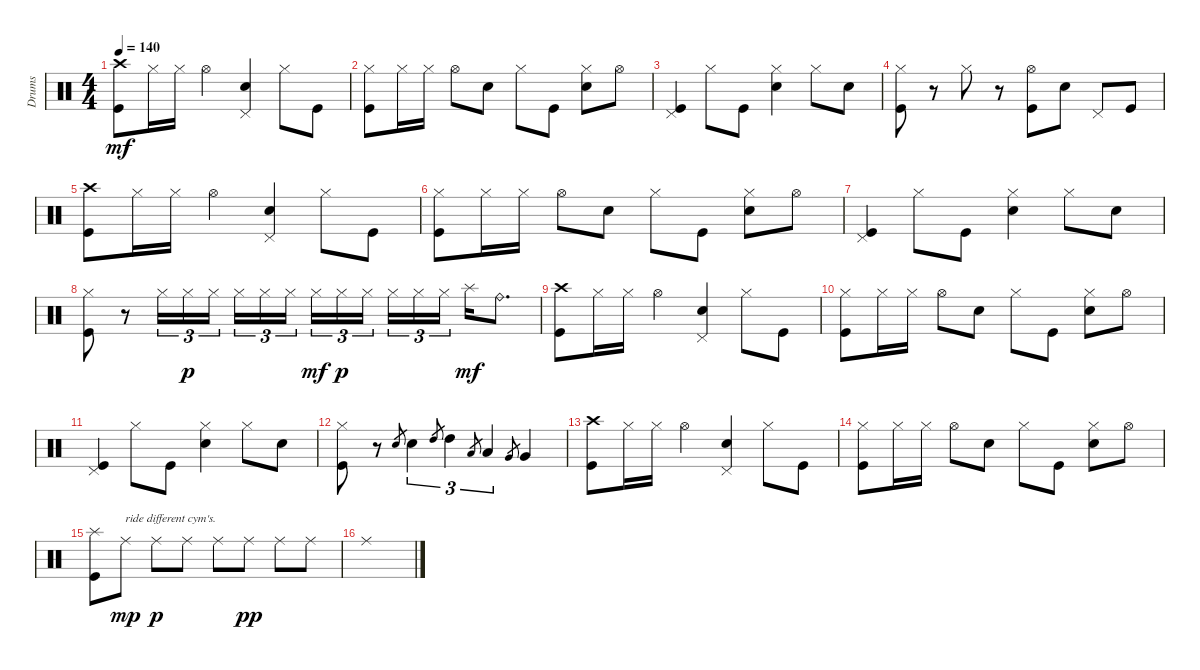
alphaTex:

\track ("Drums" "Drums") {instrument percussion}
\staff {score}
\articulation defaults
\ts (4 4)
\tempo 140
\clef neutral
\ks c
("Crash high (hit)" "Kick (hit)").8{dy mf} "Hi-Hat (closed)".16 "Hi-Hat (closed)".16 "Hi-Hat (open)".4 ("Pedal Hi-Hat (hit)" "Electric Snare (hit)").4 "Hi-Hat (closed)".8 "Kick (hit)".8 |
("Hi-Hat (closed)" "Kick (hit)").8 "Hi-Hat (closed)".16 "Hi-Hat (closed)".16 "Hi-Hat (open)".8 "Electric Snare (hit)".8 "Hi-Hat (closed)".8 "Kick (hit)".8 ("Hi-Hat (closed)" "Electric Snare (hit)").8 "Hi-Hat (open)".8 |
("Pedal Hi-Hat (hit)" "Kick (hit)").4 "Hi-Hat (closed)".8 "Kick (hit)".8 ("Hi-Hat (closed)" "Electric Snare (hit)").4 "Hi-Hat (closed)".8 "Electric Snare (hit)".8 |
("Hi-Hat (closed)" "Kick (hit)").8 r.8 "Hi-Hat (closed)".8 r.8 ("Hi-Hat (open)" "Kick (hit)").8 "Electric Snare (hit)".8 "Pedal Hi-Hat (hit)".8 "Kick (hit)".8 |
("Crash high (hit)" "Kick (hit)").8 "Hi-Hat (closed)".16 "Hi-Hat (closed)".16 "Hi-Hat (open)".4 ("Pedal Hi-Hat (hit)" "Electric Snare (hit)").4 "Hi-Hat (closed)".8 "Kick (hit)".8 |
("Hi-Hat (closed)" "Kick (hit)").8 "Hi-Hat (closed)".16 "Hi-Hat (closed)".16 "Hi-Hat (open)".8 "Electric Snare (hit)".8 "Hi-Hat (closed)".8 "Kick (hit)".8 ("Hi-Hat (closed)" "Electric Snare (hit)").8 "Hi-Hat (open)".8 |
("Pedal Hi-Hat (hit)" "Kick (hit)").4 "Hi-Hat (closed)".8 "Kick (hit)".8 ("Hi-Hat (closed)" "Electric Snare (hit)").4 "Hi-Hat (closed)".8 "Electric Snare (hit)".8 |
("Hi-Hat (closed)" "Kick (hit)").8 r.8 "Hi-Hat (closed)".16{tu (3 2)} "Hi-Hat (closed)".16{tu (3 2) dy p} "Hi-Hat (closed)".16{tu (3 2) beam splitsecondary} "Hi-Hat (closed)".16{tu (3 2)} "Hi-Hat (closed)".16{tu (3 2)} "Hi-Hat (closed)".16{tu (3 2)} "Hi-Hat (closed)".16{tu (3 2) dy mf} "Hi-Hat (closed)".16{tu (3 2) dy p} "Hi-Hat (closed)".16{tu (3 2) beam splitsecondary} "Hi-Hat (closed)".16{tu (3 2)} "Hi-Hat (closed)".16{tu (3 2)} "Hi-Hat (closed)".16{tu (3 2)} "Splash (hit)".16{dy mf} "Ride (bell)".8{d} |
("Crash high (hit)" "Kick (hit)").8 "Hi-Hat (closed)".16 "Hi-Hat (closed)".16 "Hi-Hat (open)".4 ("Pedal Hi-Hat (hit)" "Electric Snare (hit)").4 "Hi-Hat (closed)".8 "Kick (hit)".8 |
("Hi-Hat (closed)" "Kick (hit)").8 "Hi-Hat (closed)".16 "Hi-Hat (closed)".16 "Hi-Hat (open)".8 "Electric Snare (hit)".8 "Hi-Hat (closed)".8 "Kick (hit)".8 ("Hi-Hat (closed)" "Electric Snare (hit)").8 "Hi-Hat (open)".8 |
("Pedal Hi-Hat (hit)" "Kick (hit)").4 "Hi-Hat (closed)".8 "Kick (hit)".8 ("Hi-Hat (closed)" "Electric Snare (hit)").4 "Hi-Hat (closed)".8 "Electric Snare (hit)".8 |
("Hi-Hat (closed)" "Kick (hit)").8 r.8 "Electric Snare (hit)".8{gr} "Electric Snare (hit)".4{tu (3 2)} "High Tom (hit)".8{gr} "High Tom (hit)".4{tu (3 2)} "Low Tom (hit)".8{gr} "Low Tom (hit)".4{tu (3 2)} "Very Low Tom (hit)".8{gr} "Very Low Tom (hit)".4 |
("Crash high (hit)" "Kick (hit)").8 "Hi-Hat (closed)".16 "Hi-Hat (closed)".16 "Hi-Hat (open)".4 ("Pedal Hi-Hat (hit)" "Electric Snare (hit)").4 "Hi-Hat (closed)".8 "Kick (hit)".8 |
("Hi-Hat (closed)" "Kick (hit)").8 "Hi-Hat (closed)".16 "Hi-Hat (closed)".16 "Hi-Hat (open)".8 "Electric Snare (hit)".8 "Hi-Hat (closed)".8 "Kick (hit)".8 ("Hi-Hat (closed)" "Electric Snare (hit)").8 "Hi-Hat (open)".8 |
("Splash (hit)" "Kick (hit)").8 "Ride (middle)".8{txt "ride different cym's." dy mp} "Ride (middle)".8{dy p} "Ride (middle)".8 "Ride (middle)".8 "Ride (middle)".8{dy pp} "Ride (middle)".8 "Ride (middle)".8 |
"Ride (middle)".1
